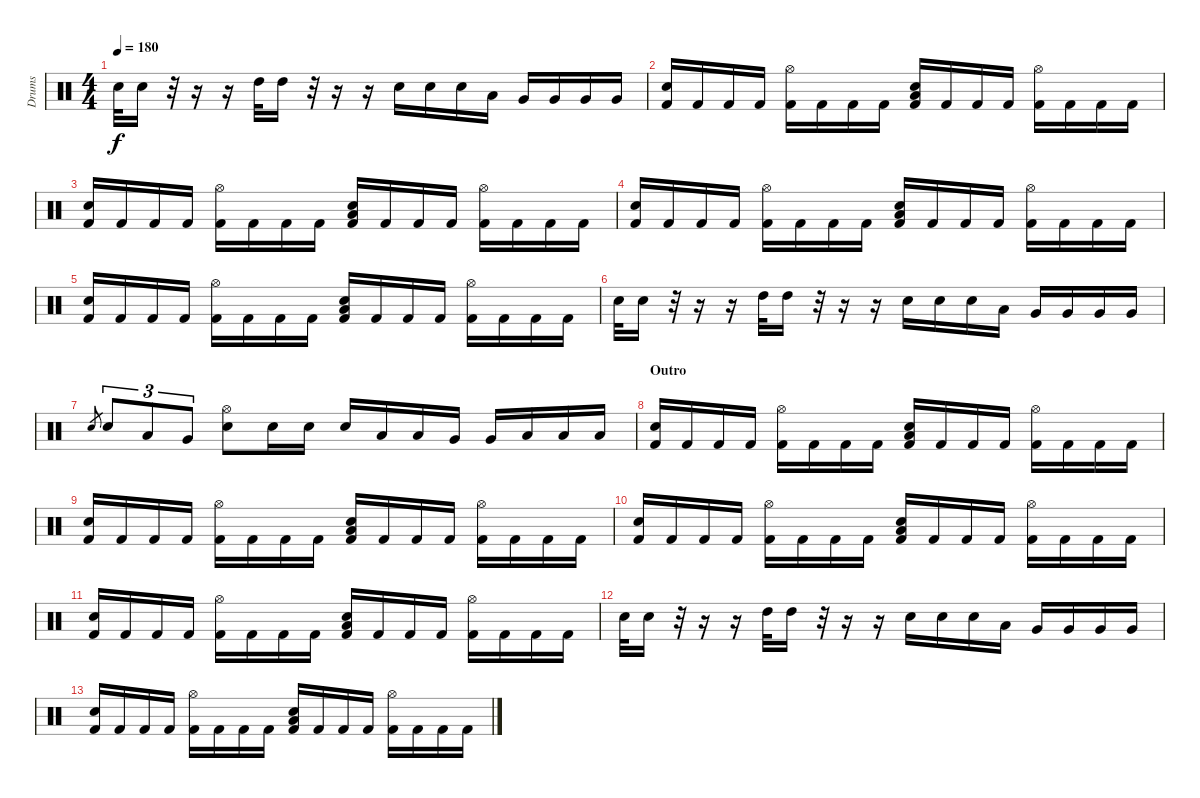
\track ("Drums" "Drums") {instrument percussion}
\staff {score}
\articulation defaults
\ts (4 4)
\tempo 180
\clef neutral
\ks c "Electric Snare (hit)".32{dy f} "Electric Snare (hit)".16
r.32 r.16 r.16 "High Tom (hit)".32 "High Tom (hit)".16 r.32 r.16 r.16 "Electric Snare (hit)".16 "Electric Snare (hit)".16 "Electric Snare (hit)".16 "Low Tom (hit)".16 "Very Low Tom (hit)".16 "Very Low Tom (hit)".16 "Very Low Tom (hit)".16 "Very Low Tom (hit)".16 |
("Kick (hit) 2" "Electric Snare (hit)").16 "Kick (hit) 2".16 "Kick (hit) 2".16 "Kick (hit) 2".16 ("Kick (hit) 2" "Hi-Hat (open)").16 "Kick (hit) 2".16 "Kick (hit) 2".16 "Kick (hit) 2".16 ("Kick (hit) 2" "Low Tom (hit)" "Electric Snare (hit)").16 "Kick (hit) 2".16 "Kick (hit) 2".16 "Kick (hit) 2".16 ("Kick (hit) 2" "Hi-Hat (open)").16 "Kick (hit) 2".16 "Kick (hit) 2".16 "Kick (hit) 2".16 |
("Kick (hit) 2" "Electric Snare (hit)").16 "Kick (hit) 2".16 "Kick (hit) 2".16 "Kick (hit) 2".16 ("Kick (hit) 2" "Hi-Hat (open)").16 "Kick (hit) 2".16 "Kick (hit) 2".16 "Kick (hit) 2".16 ("Kick (hit) 2" "Low Tom (hit)" "Electric Snare (hit)").16 "Kick (hit) 2".16 "Kick (hit) 2".16 "Kick (hit) 2".16 ("Kick (hit) 2" "Hi-Hat (open)").16 "Kick (hit) 2".16 "Kick (hit) 2".16 "Kick (hit) 2".16 |
("Kick (hit) 2" "Electric Snare (hit)").16 "Kick (hit) 2".16 "Kick (hit) 2".16 "Kick (hit) 2".16 ("Kick (hit) 2" "Hi-Hat (open)").16 "Kick (hit) 2".16 "Kick (hit) 2".16 "Kick (hit) 2".16 ("Kick (hit) 2" "Low Tom (hit)" "Electric Snare (hit)").16 "Kick (hit) 2".16 "Kick (hit) 2".16 "Kick (hit) 2".16 ("Kick (hit) 2" "Hi-Hat (open)").16 "Kick (hit) 2".16 "Kick (hit) 2".16 "Kick (hit) 2".16 |
("Kick (hit) 2" "Electric Snare (hit)").16 "Kick (hit) 2".16 "Kick (hit) 2".16 "Kick (hit) 2".16 ("Kick (hit) 2" "Hi-Hat (open)").16 "Kick (hit) 2".16 "Kick (hit) 2".16 "Kick (hit) 2".16 ("Kick (hit) 2" "Low Tom (hit)" "Electric Snare (hit)").16 "Kick (hit) 2".16 "Kick (hit) 2".16 "Kick (hit) 2".16 ("Kick (hit) 2" "Hi-Hat (open)").16 "Kick (hit) 2".16 "Kick (hit) 2".16 "Kick (hit) 2".16 |
"Electric Snare (hit)".32 "Electric Snare (hit)".16 r.32 r.16 r.16 "High Tom (hit)".32 "High Tom (hit)".16 r.32 r.16 r.16 "Electric Snare (hit)".16 "Electric Snare (hit)".16 "Electric Snare (hit)".16 "Low Tom (hit)".16 "Very Low Tom (hit)".16 "Very Low Tom (hit)".16 "Very Low Tom (hit)".16 "Very Low Tom (hit)".16 |
"Electric Snare (hit)".8{gr} "Electric Snare (hit)".8{tu (3 2)} "Low Tom (hit)".8{tu (3 2)} "Very Low Tom (hit)".8{tu (3 2)} ("Electric Snare (hit)" "Hi-Hat (open)").8 "Electric Snare (hit)".16 "Electric Snare (hit)".16 "Electric Snare (hit)".16 "Low Tom (hit)".16 "Low Tom (hit)".16 "Very Low Tom (hit)".16 "Very Low Tom (hit)".16 "Low Floor Tom (hit)".16 "Low Floor Tom (hit)".16 "Low Floor Tom (hit)".16 |
\section ("" "Outro")
("Kick (hit) 2" "Electric Snare (hit)").16{volume 0} "Kick (hit) 2".16 "Kick (hit) 2".16 "Kick (hit) 2".16 ("Kick (hit) 2" "Hi-Hat (open)").16 "Kick (hit) 2".16 "Kick (hit) 2".16 "Kick (hit) 2".16 ("Kick (hit) 2" "Low Tom (hit)" "Electric Snare (hit)").16 "Kick (hit) 2".16 "Kick (hit) 2".16 "Kick (hit) 2".16 ("Kick (hit) 2" "Hi-Hat (open)").16 "Kick (hit) 2".16 "Kick (hit) 2".16 "Kick (hit) 2".16 |
("Kick (hit) 2" "Electric Snare (hit)").16 "Kick (hit) 2".16 "Kick (hit) 2".16 "Kick (hit) 2".16 ("Kick (hit) 2" "Hi-Hat (open)").16 "Kick (hit) 2".16 "Kick (hit) 2".16 "Kick (hit) 2".16 ("Kick (hit) 2" "Low Tom (hit)" "Electric Snare (hit)").16 "Kick (hit) 2".16 "Kick (hit) 2".16 "Kick (hit) 2".16 ("Kick (hit) 2" "Hi-Hat (open)").16 "Kick (hit) 2".16 "Kick (hit) 2".16 "Kick (hit) 2".16 |
("Kick (hit) 2" "Electric Snare (hit)").16 "Kick (hit) 2".16 "Kick (hit) 2".16 "Kick (hit) 2".16 ("Kick (hit) 2" "Hi-Hat (open)").16 "Kick (hit) 2".16 "Kick (hit) 2".16 "Kick (hit) 2".16 ("Kick (hit) 2" "Low Tom (hit)" "Electric Snare (hit)").16 "Kick (hit) 2".16 "Kick (hit) 2".16 "Kick (hit) 2".16 ("Kick (hit) 2" "Hi-Hat (open)").16 "Kick (hit) 2".16 "Kick (hit) 2".16 "Kick (hit) 2".16 |
("Kick (hit) 2" "Electric Snare (hit)").16 "Kick (hit) 2".16 "Kick (hit) 2".16 "Kick (hit) 2".16 ("Kick (hit) 2" "Hi-Hat (open)").16 "Kick (hit) 2".16 "Kick (hit) 2".16 "Kick (hit) 2".16 ("Kick (hit) 2" "Low Tom (hit)" "Electric Snare (hit)").16 "Kick (hit) 2".16 "Kick (hit) 2".16 "Kick (hit) 2".16 ("Kick (hit) 2" "Hi-Hat (open)").16 "Kick (hit) 2".16 "Kick (hit) 2".16 "Kick (hit) 2".16 |
"Electric Snare (hit)".32 "Electric Snare (hit)".16 r.32 r.16 r.16 "High Tom (hit)".32 "High Tom (hit)".16 r.32 r.16 r.16 "Electric Snare (hit)".16 "Electric Snare (hit)".16 "Electric Snare (hit)".16 "Low Tom (hit)".16 "Very Low Tom (hit)".16 "Very Low Tom (hit)".16 "Very Low Tom (hit)".16 "Very Low Tom (hit)".16 |
("Kick (hit) 2" "Electric Snare (hit)").16 "Kick (hit) 2".16 "Kick (hit) 2".16 "Kick (hit) 2".16 ("Kick (hit) 2" "Hi-Hat (open)").16 "Kick (hit) 2".16 "Kick (hit) 2".16 "Kick (hit) 2".16 ("Kick (hit) 2" "Low Tom (hit)" "Electric Snare (hit)").16 "Kick (hit) 2".16 "Kick (hit) 2".16 "Kick (hit) 2".16 ("Kick (hit) 2" "Hi-Hat (open)").16 "Kick (hit) 2".16 "Kick (hit) 2".16 "Kick (hit) 2".16
